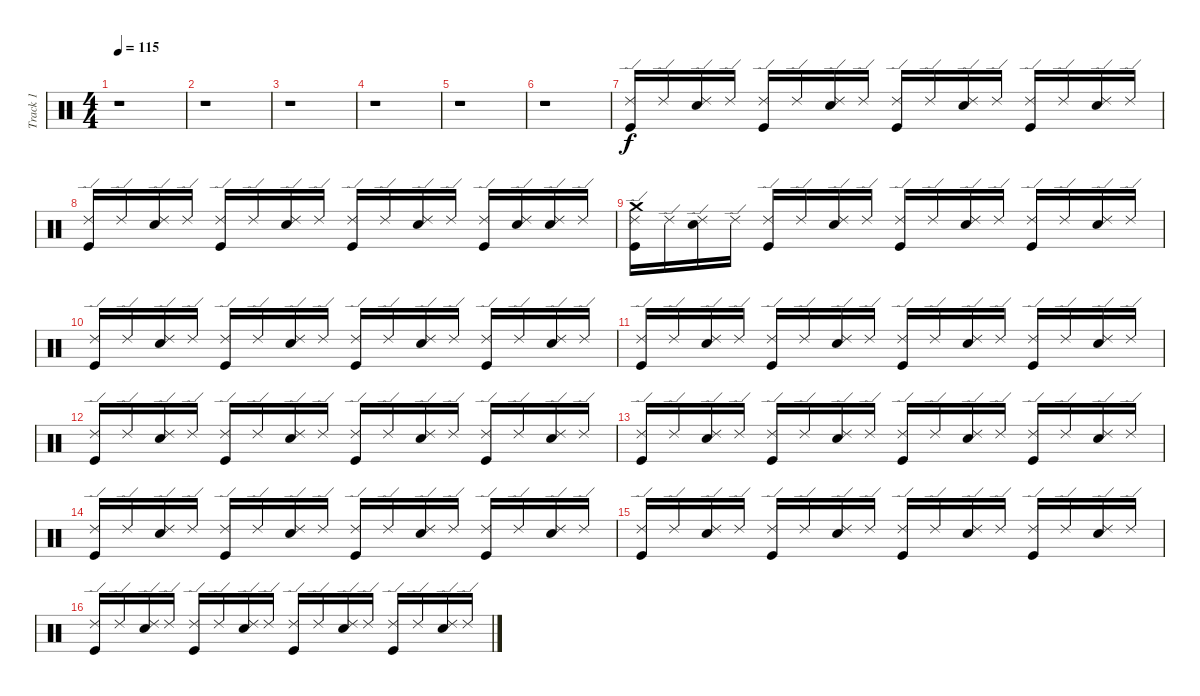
\track ("Track 1" "Track 1") {instrument percussion}
\staff {score}
\articulation defaults
\ts (4 4)
\tempo 115
\clef neutral
\ks c
r.1{dy f} |
r.1 |
r.1 |
r.1 |
r.1 |
r.1 |
("Kick (hit)" "Ride (edge) 2").16 "Ride (edge) 2".16 ("Electric Snare (hit)" "Ride (edge) 2").16 "Ride (edge) 2".16 ("Kick (hit)" "Ride (edge) 2").16 "Ride (edge) 2".16 ("Electric Snare (hit)" "Ride (edge) 2").16 "Ride (edge) 2".16 ("Kick (hit)" "Ride (edge) 2").16 "Ride (edge) 2".16 ("Electric Snare (hit)" "Ride (edge) 2").16 "Ride (edge) 2".16 ("Kick (hit)" "Ride (edge) 2").16 "Ride (edge) 2".16 ("Electric Snare (hit)" "Ride (edge) 2").16 "Ride (edge) 2".16 |
("Kick (hit)" "Ride (edge) 2").16 "Ride (edge) 2".16 ("Electric Snare (hit)" "Ride (edge) 2").16 "Ride (edge) 2".16 ("Kick (hit)" "Ride (edge) 2").16 "Ride (edge) 2".16 ("Electric Snare (hit)" "Ride (edge) 2").16 "Ride (edge) 2".16 ("Kick (hit)" "Ride (edge) 2").16 "Ride (edge) 2".16 ("Electric Snare (hit)" "Ride (edge) 2").16 "Ride (edge) 2".16 ("Kick (hit)" "Ride (edge) 2").16 ("Electric Snare (hit)" "Ride (edge) 2").16 ("Electric Snare (hit)" "Ride (edge) 2").16 "Ride (edge) 2".16 |
("Kick (hit)" "Crash medium (hit)" "Ride (edge) 2").16 "Ride (edge) 2".16 ("Electric Snare (hit)" "Ride (edge) 2").16 "Ride (edge) 2".16 ("Kick (hit)" "Ride (edge) 2").16 "Ride (edge) 2".16 ("Electric Snare (hit)" "Ride (edge) 2").16 "Ride (edge) 2".16 ("Kick (hit)" "Ride (edge) 2").16 "Ride (edge) 2".16 ("Electric Snare (hit)" "Ride (edge) 2").16 "Ride (edge) 2".16 ("Kick (hit)" "Ride (edge) 2").16 "Ride (edge) 2".16 ("Electric Snare (hit)" "Ride (edge) 2").16 "Ride (edge) 2".16 |
("Kick (hit)" "Ride (edge) 2").16 "Ride (edge) 2".16 ("Electric Snare (hit)" "Ride (edge) 2").16 "Ride (edge) 2".16 ("Kick (hit)" "Ride (edge) 2").16 "Ride (edge) 2".16 ("Electric Snare (hit)" "Ride (edge) 2").16 "Ride (edge) 2".16 ("Kick (hit)" "Ride (edge) 2").16 "Ride (edge) 2".16 ("Electric Snare (hit)" "Ride (edge) 2").16 "Ride (edge) 2".16 ("Kick (hit)" "Ride (edge) 2").16 "Ride (edge) 2".16 ("Electric Snare (hit)" "Ride (edge) 2").16 "Ride (edge) 2".16 |
("Kick (hit)" "Ride (edge) 2").16 "Ride (edge) 2".16 ("Electric Snare (hit)" "Ride (edge) 2").16 "Ride (edge) 2".16 ("Kick (hit)" "Ride (edge) 2").16 "Ride (edge) 2".16 ("Electric Snare (hit)" "Ride (edge) 2").16 "Ride (edge) 2".16 ("Kick (hit)" "Ride (edge) 2").16 "Ride (edge) 2".16 ("Electric Snare (hit)" "Ride (edge) 2").16 "Ride (edge) 2".16 ("Kick (hit)" "Ride (edge) 2").16 "Ride (edge) 2".16 ("Electric Snare (hit)" "Ride (edge) 2").16 "Ride (edge) 2".16 |
("Kick (hit)" "Ride (edge) 2").16 "Ride (edge) 2".16 ("Electric Snare (hit)" "Ride (edge) 2").16 "Ride (edge) 2".16 ("Kick (hit)" "Ride (edge) 2").16 "Ride (edge) 2".16 ("Electric Snare (hit)" "Ride (edge) 2").16 "Ride (edge) 2".16 ("Kick (hit)" "Ride (edge) 2").16 "Ride (edge) 2".16 ("Electric Snare (hit)" "Ride (edge) 2").16 "Ride (edge) 2".16 ("Kick (hit)" "Ride (edge) 2").16 "Ride (edge) 2".16 ("Electric Snare (hit)" "Ride (edge) 2").16 "Ride (edge) 2".16 |
("Kick (hit)" "Ride (edge) 2").16 "Ride (edge) 2".16 ("Electric Snare (hit)" "Ride (edge) 2").16 "Ride (edge) 2".16 ("Kick (hit)" "Ride (edge) 2").16 "Ride (edge) 2".16 ("Electric Snare (hit)" "Ride (edge) 2").16 "Ride (edge) 2".16 ("Kick (hit)" "Ride (edge) 2").16 "Ride (edge) 2".16 ("Electric Snare (hit)" "Ride (edge) 2").16 "Ride (edge) 2".16 ("Kick (hit)" "Ride (edge) 2").16 "Ride (edge) 2".16 ("Electric Snare (hit)" "Ride (edge) 2").16 "Ride (edge) 2".16 |
("Kick (hit)" "Ride (edge) 2").16 "Ride (edge) 2".16 ("Electric Snare (hit)" "Ride (edge) 2").16 "Ride (edge) 2".16 ("Kick (hit)" "Ride (edge) 2").16 "Ride (edge) 2".16 ("Electric Snare (hit)" "Ride (edge) 2").16 "Ride (edge) 2".16 ("Kick (hit)" "Ride (edge) 2").16 "Ride (edge) 2".16 ("Electric Snare (hit)" "Ride (edge) 2").16 "Ride (edge) 2".16 ("Kick (hit)" "Ride (edge) 2").16 "Ride (edge) 2".16 ("Electric Snare (hit)" "Ride (edge) 2").16 "Ride (edge) 2".16 |
("Kick (hit)" "Ride (edge) 2").16 "Ride (edge) 2".16 ("Electric Snare (hit)" "Ride (edge) 2").16 "Ride (edge) 2".16 ("Kick (hit)" "Ride (edge) 2").16 "Ride (edge) 2".16 ("Electric Snare (hit)" "Ride (edge) 2").16 "Ride (edge) 2".16 ("Kick (hit)" "Ride (edge) 2").16 "Ride (edge) 2".16 ("Electric Snare (hit)" "Ride (edge) 2").16 "Ride (edge) 2".16 ("Kick (hit)" "Ride (edge) 2").16 "Ride (edge) 2".16 ("Electric Snare (hit)" "Ride (edge) 2").16 "Ride (edge) 2".16 |
("Kick (hit)" "Ride (edge) 2").16 "Ride (edge) 2".16 ("Electric Snare (hit)" "Ride (edge) 2").16 "Ride (edge) 2".16 ("Kick (hit)" "Ride (edge) 2").16 "Ride (edge) 2".16 ("Electric Snare (hit)" "Ride (edge) 2").16 "Ride (edge) 2".16 ("Kick (hit)" "Ride (edge) 2").16 "Ride (edge) 2".16 ("Electric Snare (hit)" "Ride (edge) 2").16 "Ride (edge) 2".16 ("Kick (hit)" "Ride (edge) 2").16 "Ride (edge) 2".16 ("Electric Snare (hit)" "Ride (edge) 2").16 "Ride (edge) 2".16
